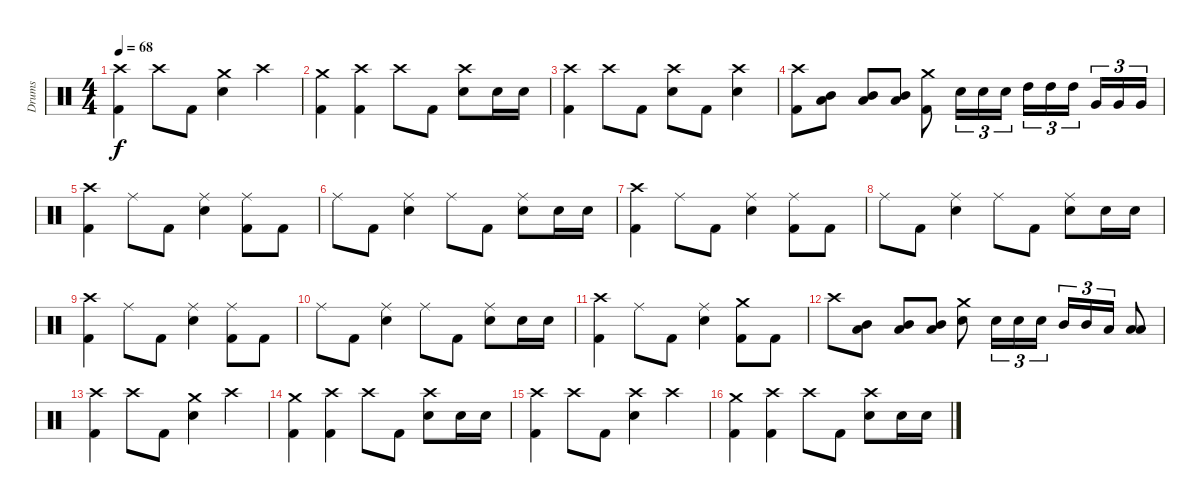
\track ("Drums" "Drums") {instrument percussion}
\staff {score}
\articulation defaults
\ts (4 4)
\tempo 68
\clef neutral
\ks c
("Crash high (hit)" "Kick (hit) 2").4{dy f} "Crash high (hit)".8 "Kick (hit) 2".8 ("Crash medium (hit)" "Electric Snare (hit)").4 "Crash high (hit)".4 |
("Crash medium (hit)" "Kick (hit) 2").4 ("Crash high (hit)" "Kick (hit) 2").4 "Crash high (hit)".8 "Kick (hit) 2".8 ("Crash high (hit)" "Electric Snare (hit)").8 "Electric Snare (hit)".16 "Electric Snare (hit)".16 |
("Crash high (hit)" "Kick (hit) 2").4 "Crash high (hit)".8 "Kick (hit) 2".8 ("Crash high (hit)" "Electric Snare (hit)").8 "Kick (hit) 2".8 ("Crash high (hit)" "Electric Snare (hit)").4 |
("Crash high (hit)" "Kick (hit) 2").8 ("Mid Tom (hit)" "Low Floor Tom (hit)").8 ("Mid Tom (hit)" "Low Floor Tom (hit)").8 ("Mid Tom (hit)" "Low Floor Tom (hit)").8 ("Crash medium (hit)" "Kick (hit) 2").8 "Electric Snare (hit)".16{tu (3 2)} "Electric Snare (hit)".16{tu (3 2)} "Electric Snare (hit)".16{tu (3 2)} "High Tom (hit)".16{tu (3 2)} "High Tom (hit)".16{tu (3 2)} "High Tom (hit)".16{tu (3 2) beam splitsecondary} "Very Low Tom (hit)".16{tu (3 2)} "Very Low Tom (hit)".16{tu (3 2)} "Very Low Tom (hit)".16{tu (3 2)} |
("Crash high (hit)" "Kick (hit) 2").4 "Ride (middle)".8 "Kick (hit) 2".8 ("Ride (middle)" "Electric Snare (hit)").4 ("Ride (middle)" "Kick (hit) 2").8 "Kick (hit) 2".8 |
"Ride (middle)".8 "Kick (hit) 2".8 ("Ride (middle)" "Electric Snare (hit)").4 "Ride (middle)".8 "Kick (hit) 2".8 ("Ride (middle)" "Electric Snare (hit)").8 "Electric Snare (hit)".16 "Electric Snare (hit)".16 |
("Crash high (hit)" "Kick (hit) 2").4 "Ride (middle)".8 "Kick (hit) 2".8 ("Ride (middle)" "Electric Snare (hit)").4 ("Ride (middle)" "Kick (hit) 2").8 "Kick (hit) 2".8 |
"Ride (middle)".8 "Kick (hit) 2".8 ("Ride (middle)" "Electric Snare (hit)").4 "Ride (middle)".8 "Kick (hit) 2".8 ("Ride (middle)" "Electric Snare (hit)").8 "Electric Snare (hit)".16 "Electric Snare (hit)".16 |
("Crash high (hit)" "Kick (hit) 2").4 "Ride (middle)".8 "Kick (hit) 2".8 ("Ride (middle)" "Electric Snare (hit)").4 ("Ride (middle)" "Kick (hit) 2").8 "Kick (hit) 2".8 |
"Ride (middle)".8 "Kick (hit) 2".8 ("Ride (middle)" "Electric Snare (hit)").4 "Ride (middle)".8 "Kick (hit) 2".8 ("Ride (middle)" "Electric Snare (hit)").8 "Electric Snare (hit)".16 "Electric Snare (hit)".16 |
("Crash high (hit)" "Kick (hit) 2").4 "Ride (middle)".8 "Kick (hit) 2".8 ("Ride (middle)" "Electric Snare (hit)").4 ("Crash medium (hit)" "Kick (hit) 2").8 "Kick (hit) 2".8 |
"Crash high (hit)".8 ("Mid Tom (hit)" "Low Floor Tom (hit)").8 ("Mid Tom (hit)" "Low Floor Tom (hit)").8 ("Mid Tom (hit)" "Low Floor Tom (hit)").8 ("Crash medium (hit)" "Electric Snare (hit)").8 "Electric Snare (hit)".16{tu (3 2)} "Electric Snare (hit)".16{tu (3 2)} "Electric Snare (hit)".16{tu (3 2)} "Mid Tom (hit)".16{tu (3 2)} "Mid Tom (hit)".16{tu (3 2)} "Low Tom (hit)".16{tu (3 2)} ("Low Tom (hit)" "Low Floor Tom (hit)").8 |
("Crash high (hit)" "Kick (hit) 2").4 "Crash high (hit)".8 "Kick (hit) 2".8 ("Crash medium (hit)" "Electric Snare (hit)").4 "Crash high (hit)".4 |
("Crash medium (hit)" "Kick (hit) 2").4 ("Crash high (hit)" "Kick (hit) 2").4 "Crash high (hit)".8 "Kick (hit) 2".8 ("Crash high (hit)" "Electric Snare (hit)").8 "Electric Snare (hit)".16 "Electric Snare (hit)".16 |
("Crash high (hit)" "Kick (hit) 2").4 "Crash high (hit)".8 "Kick (hit) 2".8 ("Crash high (hit)" "Electric Snare (hit)").4 "Crash high (hit)".4 |
("Crash medium (hit)" "Kick (hit) 2").4 ("Crash high (hit)" "Kick (hit) 2").4 "Crash high (hit)".8 "Kick (hit) 2".8 ("Crash high (hit)" "Electric Snare (hit)").8 "Electric Snare (hit)".16 "Electric Snare (hit)".16
